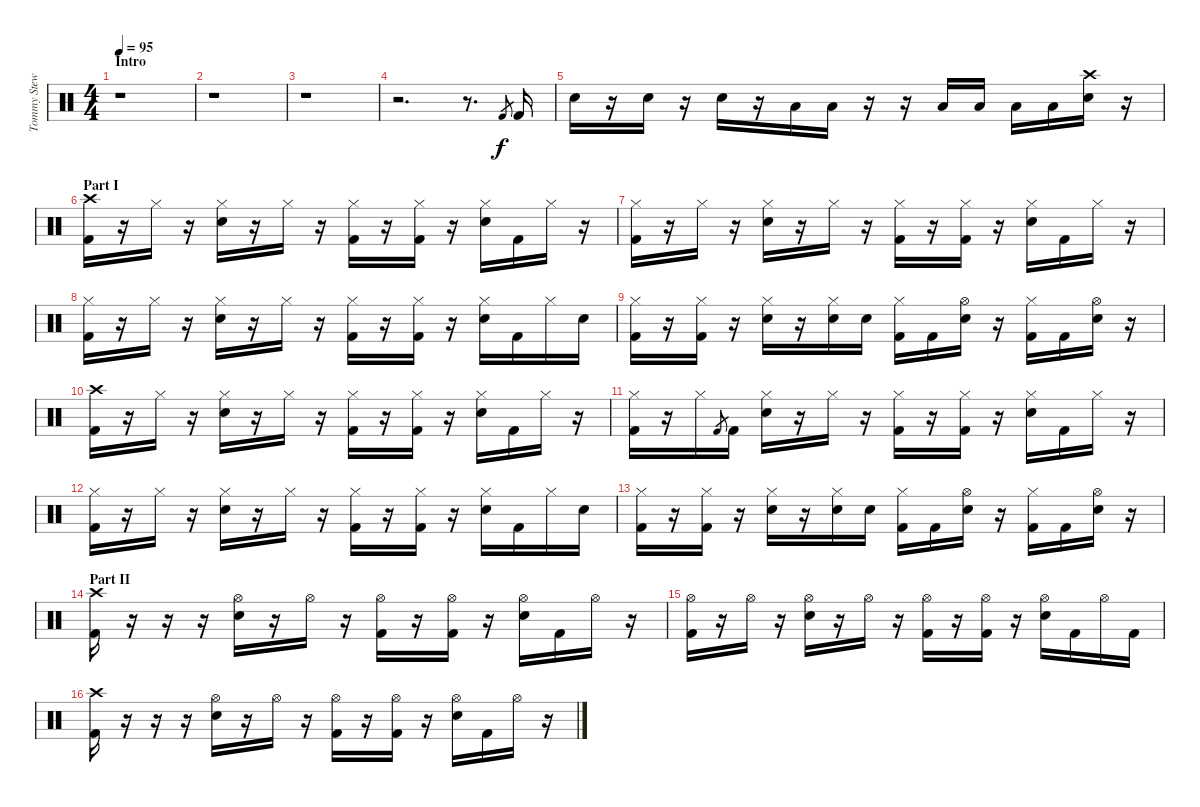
\track ("Tommy Stewart - Drums" "Tommy Stew") {instrument percussion}
\staff {score}
\articulation defaults
\ts (4 4)
\section ("" "Intro")
\tempo 95
\clef neutral
\ks c
r.1{dy f} |
r.1 |
r.1 |
r.2{d} r.8{d} "Kick (hit) 2".8{gr} "Kick (hit) 2".16 |
"Snare (hit) 2".16 r.16 "Snare (hit) 2".16 r.16 "Snare (hit) 2".16 r.16 "Low Floor Tom (hit)".16 "Low Floor Tom (hit)".16 r.16 r.16 "Low Floor Tom (hit)".16 "Low Floor Tom (hit)".16 "Low Floor Tom (hit)".16 "Low Floor Tom (hit)".16 ("Crash high (hit)" "Snare (hit) 2").16 r.16 |
\section ("" "Part I")
("Crash high (hit)" "Kick (hit) 2").16 r.16 "Hi-Hat (closed)".16 r.16 ("Hi-Hat (closed)" "Snare (hit) 2").16 r.16 "Hi-Hat (closed)".16 r.16 ("Hi-Hat (closed)" "Kick (hit) 2").16 r.16 ("Hi-Hat (closed)" "Kick (hit) 2").16 r.16 ("Hi-Hat (closed)" "Snare (hit) 2").16 "Kick (hit) 2".16 "Hi-Hat (closed)".16 r.16 |
("Hi-Hat (closed)" "Kick (hit) 2").16 r.16 "Hi-Hat (closed)".16 r.16 ("Hi-Hat (closed)" "Snare (hit) 2").16 r.16 "Hi-Hat (closed)".16 r.16 ("Hi-Hat (closed)" "Kick (hit) 2").16 r.16 ("Hi-Hat (closed)" "Kick (hit) 2").16 r.16 ("Hi-Hat (closed)" "Snare (hit) 2").16 "Kick (hit) 2".16 "Hi-Hat (closed)".16 r.16 |
("Hi-Hat (closed)" "Kick (hit) 2").16 r.16 "Hi-Hat (closed)".16 r.16 ("Hi-Hat (closed)" "Snare (hit) 2").16 r.16 "Hi-Hat (closed)".16 r.16 ("Hi-Hat (closed)" "Kick (hit) 2").16 r.16 ("Hi-Hat (closed)" "Kick (hit) 2").16 r.16 ("Hi-Hat (closed)" "Snare (hit) 2").16 "Kick (hit) 2".16 "Hi-Hat (closed)".16 "Snare (hit) 2".16 |
("Hi-Hat (closed)" "Kick (hit) 2").16 r.16 ("Hi-Hat (closed)" "Kick (hit) 2").16 r.16 ("Hi-Hat (closed)" "Snare (hit) 2").16 r.16 ("Hi-Hat (closed)" "Snare (hit) 2").16 "Snare (hit) 2".16 ("Hi-Hat (closed)" "Kick (hit) 2").16 "Kick (hit) 2".16 ("Hi-Hat (open)" "Snare (hit) 2").16 r.16 ("Hi-Hat (closed)" "Kick (hit) 2").16 "Kick (hit) 2".16 ("Hi-Hat (open)" "Snare (hit) 2").16 r.16 |
("Crash high (hit)" "Kick (hit) 2").16 r.16 "Hi-Hat (closed)".16 r.16 ("Hi-Hat (closed)" "Snare (hit) 2").16 r.16 "Hi-Hat (closed)".16 r.16 ("Hi-Hat (closed)" "Kick (hit) 2").16 r.16 ("Hi-Hat (closed)" "Kick (hit) 2").16 r.16 ("Hi-Hat (closed)" "Snare (hit) 2").16 "Kick (hit) 2".16 "Hi-Hat (closed)".16 r.16 |
("Hi-Hat (closed)" "Kick (hit) 2").16 r.16 "Hi-Hat (closed)".16 "Kick (hit) 2".8{gr} "Kick (hit) 2".16 ("Hi-Hat (closed)" "Snare (hit) 2").16 r.16 "Hi-Hat (closed)".16 r.16 ("Hi-Hat (closed)" "Kick (hit) 2").16 r.16 ("Hi-Hat (closed)" "Kick (hit) 2").16 r.16 ("Hi-Hat (closed)" "Snare (hit) 2").16 "Kick (hit) 2".16 "Hi-Hat (closed)".16 r.16 |
("Hi-Hat (closed)" "Kick (hit) 2").16 r.16 "Hi-Hat (closed)".16 r.16 ("Hi-Hat (closed)" "Snare (hit) 2").16 r.16 "Hi-Hat (closed)".16 r.16 ("Hi-Hat (closed)" "Kick (hit) 2").16 r.16 ("Hi-Hat (closed)" "Kick (hit) 2").16 r.16 ("Hi-Hat (closed)" "Snare (hit) 2").16 "Kick (hit) 2".16 "Hi-Hat (closed)".16 "Snare (hit) 2".16 |
("Hi-Hat (closed)" "Kick (hit) 2").16 r.16 ("Hi-Hat (closed)" "Kick (hit) 2").16 r.16 ("Hi-Hat (closed)" "Snare (hit) 2").16 r.16 ("Hi-Hat (closed)" "Snare (hit) 2").16 "Snare (hit) 2".16 ("Hi-Hat (closed)" "Kick (hit) 2").16 "Kick (hit) 2".16 ("Hi-Hat (open)" "Snare (hit) 2").16 r.16 ("Hi-Hat (closed)" "Kick (hit) 2").16 "Kick (hit) 2".16 ("Hi-Hat (open)" "Snare (hit) 2").16 r.16 |
\section ("" "Part II")
("Crash high (hit)" "Kick (hit) 2").16 r.16 r.16 r.16 ("Hi-Hat (open)" "Snare (hit) 2").16 r.16 "Hi-Hat (open)".16 r.16 ("Hi-Hat (open)" "Kick (hit) 2").16 r.16 ("Hi-Hat (open)" "Kick (hit) 2").16 r.16 ("Hi-Hat (open)" "Snare (hit) 2").16 "Kick (hit) 2".16 "Hi-Hat (open)".16 r.16 |
("Hi-Hat (open)" "Kick (hit) 2").16 r.16 "Hi-Hat (open)".16 r.16 ("Hi-Hat (open)" "Snare (hit) 2").16 r.16 "Hi-Hat (open)".16 r.16 ("Hi-Hat (open)" "Kick (hit) 2").16 r.16 ("Hi-Hat (open)" "Kick (hit) 2").16 r.16 ("Hi-Hat (open)" "Snare (hit) 2").16 "Kick (hit) 2".16 "Hi-Hat (open)".16 "Kick (hit) 2".16 |
("Crash high (hit)" "Kick (hit) 2").16 r.16 r.16 r.16 ("Hi-Hat (open)" "Snare (hit) 2").16 r.16 "Hi-Hat (open)".16 r.16 ("Hi-Hat (open)" "Kick (hit) 2").16 r.16 ("Hi-Hat (open)" "Kick (hit) 2").16 r.16 ("Hi-Hat (open)" "Snare (hit) 2").16 "Kick (hit) 2".16 "Hi-Hat (open)".16 r.16
